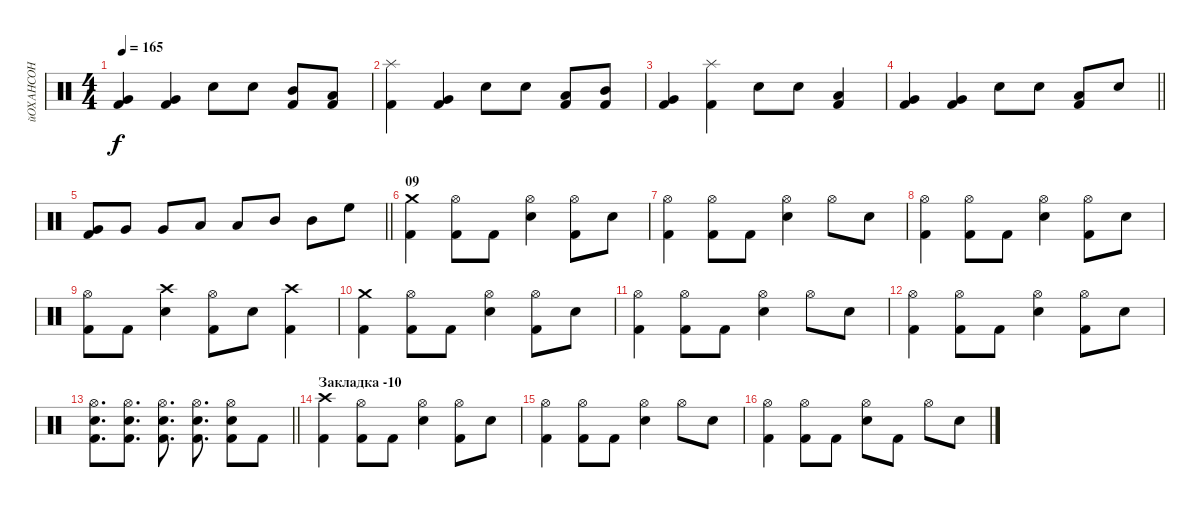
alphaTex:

\track ("йОХАНСОН" "йОХАНСОН") {instrument percussion}
\staff {score}
\articulation defaults
\ts (4 4)
\tempo 165
\clef neutral
\ks c
("Very Low Tom (hit)" "Kick (hit) 2").4{dy f} ("Very Low Tom (hit)" "Kick (hit) 2").4 "Snare (hit) 2".8 "Snare (hit) 2".8 ("Mid Tom (hit)" "Kick (hit) 2").8 ("Low Tom (hit)" "Kick (hit) 2").8 |
("Splash (hit)" "Kick (hit) 2").4 ("Very Low Tom (hit)" "Kick (hit) 2").4 "Snare (hit) 2".8 "Snare (hit) 2".8 ("Low Tom (hit)" "Kick (hit) 2").8 ("Mid Tom (hit)" "Kick (hit) 2").8 |
("Very Low Tom (hit)" "Kick (hit) 2").4 ("Splash (hit)" "Kick (hit) 2").4 "Snare (hit) 2".8 "Snare (hit) 2".8 ("Low Tom (hit)" "Kick (hit) 2").4 |
\barLineRight lightlight
("Very Low Tom (hit)" "Kick (hit) 2").4 ("Very Low Tom (hit)" "Kick (hit) 2").4 "Snare (hit) 2".8 "Snare (hit) 2".8 ("Low Tom (hit)" "Kick (hit) 2").8 "Snare (hit) 2".8 |
\section ("" "")
\barLineRight lightlight
("Very Low Tom (hit)" "Kick (hit) 2").8 "Very Low Tom (hit)".8 "Very Low Tom (hit)".8 "Low Tom (hit)".8 "Low Tom (hit)".8 "Mid Tom (hit)".8 "Mid Tom (hit)".8 "High Floor Tom (hit)".8 |
\section ("" "09")
("Crash medium (hit)" "Kick (hit) 2").4 ("Hi-Hat (open)" "Kick (hit) 2").8 "Kick (hit) 2".8 ("Hi-Hat (open)" "Snare (hit) 2").4 ("Hi-Hat (open)" "Kick (hit) 2").8 "Snare (hit) 2".8 |
("Hi-Hat (open)" "Kick (hit) 2").4 ("Hi-Hat (open)" "Kick (hit) 2").8 "Kick (hit) 2".8 ("Hi-Hat (open)" "Snare (hit) 2").4 "Hi-Hat (open)".8 "Snare (hit) 2".8 |
("Hi-Hat (open)" "Kick (hit) 2").4 ("Hi-Hat (open)" "Kick (hit) 2").8 "Kick (hit) 2".8 ("Hi-Hat (open)" "Snare (hit) 2").4 ("Hi-Hat (open)" "Kick (hit) 2").8 "Snare (hit) 2".8 |
("Hi-Hat (open)" "Kick (hit) 2").8 "Kick (hit) 2".8 ("Crash high (hit)" "Snare (hit) 2").4 ("Hi-Hat (open)" "Kick (hit) 2").8 "Snare (hit) 2".8 ("Crash high (hit)" "Kick (hit) 2").4 |
("Crash medium (hit)" "Kick (hit) 2").4 ("Hi-Hat (open)" "Kick (hit) 2").8 "Kick (hit) 2".8 ("Hi-Hat (open)" "Snare (hit) 2").4 ("Hi-Hat (open)" "Kick (hit) 2").8 "Snare (hit) 2".8 |
("Hi-Hat (open)" "Kick (hit) 2").4 ("Hi-Hat (open)" "Kick (hit) 2").8 "Kick (hit) 2".8 ("Hi-Hat (open)" "Snare (hit) 2").4 "Hi-Hat (open)".8 "Snare (hit) 2".8 |
("Hi-Hat (open)" "Kick (hit) 2").4 ("Hi-Hat (open)" "Kick (hit) 2").8 "Kick (hit) 2".8 ("Hi-Hat (open)" "Snare (hit) 2").4 ("Hi-Hat (open)" "Kick (hit) 2").8 "Snare (hit) 2".8 |
\barLineRight lightlight
("Hi-Hat (open)" "Snare (hit) 2" "Kick (hit) 2").8{d} ("Hi-Hat (open)" "Snare (hit) 2" "Kick (hit) 2").8{d} ("Hi-Hat (open)" "Snare (hit) 2" "Kick (hit) 2").8{d} ("Hi-Hat (open)" "Snare (hit) 2" "Kick (hit) 2").8{d} ("Hi-Hat (open)" "Snare (hit) 2" "Kick (hit) 2").8 "Kick (hit) 2".8 |
\section ("" "Закладка -10")
("Crash high (hit)" "Kick (hit) 2").4 ("Hi-Hat (open)" "Kick (hit) 2").8 "Kick (hit) 2".8 ("Hi-Hat (open)" "Snare (hit) 2").4 ("Hi-Hat (open)" "Kick (hit) 2").8 "Snare (hit) 2".8 |
("Hi-Hat (open)" "Kick (hit) 2").4 ("Hi-Hat (open)" "Kick (hit) 2").8 "Kick (hit) 2".8 ("Hi-Hat (open)" "Snare (hit) 2").4 "Hi-Hat (open)".8 "Snare (hit) 2".8 |
("Hi-Hat (open)" "Kick (hit) 2").4 ("Hi-Hat (open)" "Kick (hit) 2").8 "Kick (hit) 2".8 ("Hi-Hat (open)" "Snare (hit) 2").8 "Kick (hit) 2".8 "Hi-Hat (open)".8 "Snare (hit) 2".8
